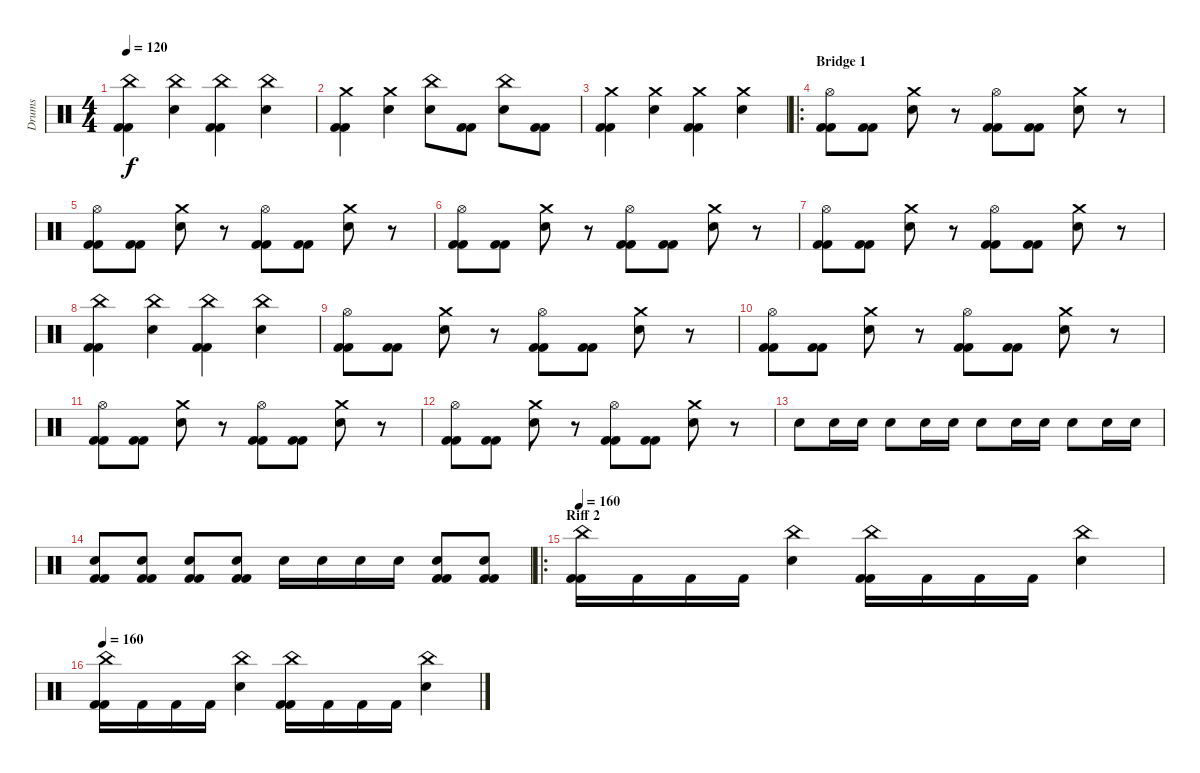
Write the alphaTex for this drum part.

\track ("Drums" "Drums") {instrument percussion}
\staff {score}
\articulation defaults
\ts (4 4)
\tempo 120
\clef neutral
\ks c
("China (hit)" "Kick (hit) 2" "Kick (hit) 2").4{dy f} ("Electric Snare (hit)" "China (hit)").4 ("China (hit)" "Kick (hit) 2" "Kick (hit) 2").4 ("Electric Snare (hit)" "China (hit)").4 |
("Crash medium (hit)" "Kick (hit) 2" "Kick (hit) 2").4 ("Electric Snare (hit)" "Crash medium (hit)").4 ("China (hit)" "Electric Snare (hit)").8 ("Kick (hit) 2" "Kick (hit) 2").8 ("Electric Snare (hit)" "China (hit)").8 ("Kick (hit) 2" "Kick (hit) 2").8 |
("Crash medium (hit)" "Kick (hit) 2" "Kick (hit) 2").4 ("Electric Snare (hit)" "Crash medium (hit)").4 ("Crash medium (hit)" "Kick (hit) 2" "Kick (hit) 2").4 ("Electric Snare (hit)" "Crash medium (hit)").4 |
\ro
\section ("" "Bridge 1")
("Hi-Hat (open)" "Kick (hit) 2" "Kick (hit) 2").8 ("Kick (hit) 2" "Kick (hit) 2").8 ("Electric Snare (hit)" "Crash medium (hit)").8 r.8 ("Hi-Hat (open)" "Kick (hit) 2" "Kick (hit) 2").8 ("Kick (hit) 2" "Kick (hit) 2").8 ("Electric Snare (hit)" "Crash medium (hit)").8 r.8 |
("Hi-Hat (open)" "Kick (hit) 2" "Kick (hit) 2").8 ("Kick (hit) 2" "Kick (hit) 2").8 ("Electric Snare (hit)" "Crash medium (hit)").8 r.8 ("Hi-Hat (open)" "Kick (hit) 2" "Kick (hit) 2").8 ("Kick (hit) 2" "Kick (hit) 2").8 ("Electric Snare (hit)" "Crash medium (hit)").8 r.8 |
("Hi-Hat (open)" "Kick (hit) 2" "Kick (hit) 2").8 ("Kick (hit) 2" "Kick (hit) 2").8 ("Electric Snare (hit)" "Crash medium (hit)").8 r.8 ("Hi-Hat (open)" "Kick (hit) 2" "Kick (hit) 2").8 ("Kick (hit) 2" "Kick (hit) 2").8 ("Electric Snare (hit)" "Crash medium (hit)").8 r.8 |
("Hi-Hat (open)" "Kick (hit) 2" "Kick (hit) 2").8 ("Kick (hit) 2" "Kick (hit) 2").8 ("Electric Snare (hit)" "Crash medium (hit)").8 r.8 ("Hi-Hat (open)" "Kick (hit) 2" "Kick (hit) 2").8 ("Kick (hit) 2" "Kick (hit) 2").8 ("Electric Snare (hit)" "Crash medium (hit)").8 r.8 |
("China (hit)" "Kick (hit) 2" "Kick (hit) 2").4 ("Electric Snare (hit)" "China (hit)").4 ("China (hit)" "Kick (hit) 2" "Kick (hit) 2").4 ("Electric Snare (hit)" "China (hit)").4 |
("Hi-Hat (open)" "Kick (hit) 2" "Kick (hit) 2").8 ("Kick (hit) 2" "Kick (hit) 2").8 ("Electric Snare (hit)" "Crash medium (hit)").8 r.8 ("Hi-Hat (open)" "Kick (hit) 2" "Kick (hit) 2").8 ("Kick (hit) 2" "Kick (hit) 2").8 ("Electric Snare (hit)" "Crash medium (hit)").8 r.8 |
("Hi-Hat (open)" "Kick (hit) 2" "Kick (hit) 2").8 ("Kick (hit) 2" "Kick (hit) 2").8 ("Electric Snare (hit)" "Crash medium (hit)").8 r.8 ("Hi-Hat (open)" "Kick (hit) 2" "Kick (hit) 2").8 ("Kick (hit) 2" "Kick (hit) 2").8 ("Electric Snare (hit)" "Crash medium (hit)").8 r.8 |
("Hi-Hat (open)" "Kick (hit) 2" "Kick (hit) 2").8 ("Kick (hit) 2" "Kick (hit) 2").8 ("Electric Snare (hit)" "Crash medium (hit)").8 r.8 ("Hi-Hat (open)" "Kick (hit) 2" "Kick (hit) 2").8 ("Kick (hit) 2" "Kick (hit) 2").8 ("Electric Snare (hit)" "Crash medium (hit)").8 r.8 |
("Hi-Hat (open)" "Kick (hit) 2" "Kick (hit) 2").8 ("Kick (hit) 2" "Kick (hit) 2").8 ("Electric Snare (hit)" "Crash medium (hit)").8 r.8 ("Hi-Hat (open)" "Kick (hit) 2" "Kick (hit) 2").8 ("Kick (hit) 2" "Kick (hit) 2").8 ("Electric Snare (hit)" "Crash medium (hit)").8 r.8 |
"Electric Snare (hit)".8 "Electric Snare (hit)".16 "Electric Snare (hit)".16 "Electric Snare (hit)".8 "Electric Snare (hit)".16 "Electric Snare (hit)".16 "Electric Snare (hit)".8 "Electric Snare (hit)".16 "Electric Snare (hit)".16 "Electric Snare (hit)".8 "Electric Snare (hit)".16 "Electric Snare (hit)".16 |
("Electric Snare (hit)" "Kick (hit) 2" "Kick (hit) 2").8 ("Kick (hit) 2" "Kick (hit) 2" "Electric Snare (hit)").8 ("Electric Snare (hit)" "Kick (hit) 2" "Kick (hit) 2").8 ("Kick (hit) 2" "Kick (hit) 2" "Electric Snare (hit)").8 "Electric Snare (hit)".16 "Electric Snare (hit)".16 "Electric Snare (hit)".16 "Electric Snare (hit)".16 ("Electric Snare (hit)" "Kick (hit) 2" "Kick (hit) 2").8 ("Kick (hit) 2" "Kick (hit) 2" "Electric Snare (hit)").8 |
\ro
\section ("" "Riff 2")
\tempo 160
("China (hit)" "Kick (hit) 2" "Kick (hit) 2").16 "Kick (hit) 2".16 "Kick (hit) 2".16 "Kick (hit) 2".16 ("Electric Snare (hit)" "China (hit)").4 ("China (hit)" "Kick (hit) 2" "Kick (hit) 2").16 "Kick (hit) 2".16 "Kick (hit) 2".16 "Kick (hit) 2".16 ("Electric Snare (hit)" "China (hit)").4 |
\tempo 160
("China (hit)" "Kick (hit) 2" "Kick (hit) 2").16 "Kick (hit) 2".16 "Kick (hit) 2".16 "Kick (hit) 2".16 ("Electric Snare (hit)" "China (hit)").4 ("China (hit)" "Kick (hit) 2" "Kick (hit) 2").16 "Kick (hit) 2".16 "Kick (hit) 2".16 "Kick (hit) 2".16 ("Electric Snare (hit)" "China (hit)").4
